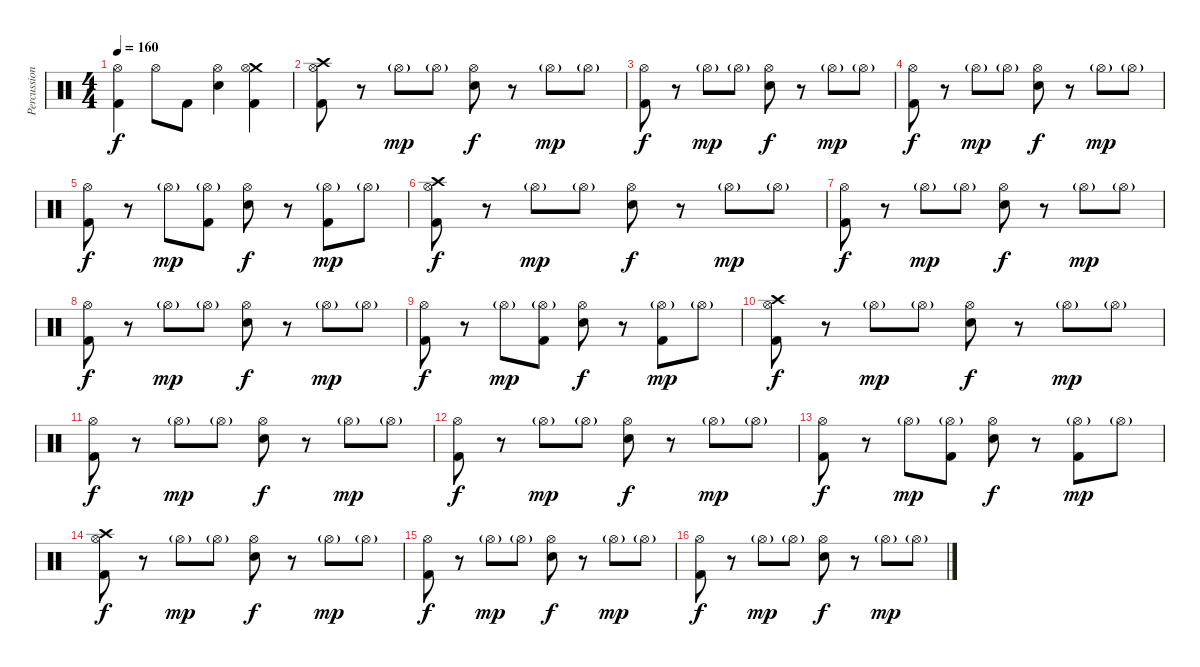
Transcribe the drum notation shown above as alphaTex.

\track ("Percussion" "Percussion") {instrument percussion}
\staff {score}
\articulation defaults
\ts (4 4)
\tempo 160
\clef neutral
\ks c
("Hi-Hat (open)" "Kick (hit) 2").4{dy f} "Hi-Hat (open)".8 "Kick (hit) 2".8 ("Hi-Hat (open)" "Electric Snare (hit)").4 ("Crash medium (hit)" "Hi-Hat (open)" "Kick (hit) 2").4 |
("Crash high (hit)" "Hi-Hat (open)" "Kick (hit) 2").8 r.8 "Hi-Hat (open)"{g}.8{dy mp} "Hi-Hat (open)"{g}.8 ("Hi-Hat (open)" "Electric Snare (hit)").8{dy f} r.8 "Hi-Hat (open)"{g}.8{dy mp} "Hi-Hat (open)"{g}.8 |
("Hi-Hat (open)" "Kick (hit) 2").8{dy f} r.8 "Hi-Hat (open)"{g}.8{dy mp} "Hi-Hat (open)"{g}.8 ("Hi-Hat (open)" "Electric Snare (hit)").8{dy f} r.8 "Hi-Hat (open)"{g}.8{dy mp} "Hi-Hat (open)"{g}.8 |
("Hi-Hat (open)" "Kick (hit) 2").8{dy f} r.8 "Hi-Hat (open)"{g}.8{dy mp} "Hi-Hat (open)"{g}.8 ("Hi-Hat (open)" "Electric Snare (hit)").8{dy f} r.8 "Hi-Hat (open)"{g}.8{dy mp} "Hi-Hat (open)"{g}.8 |
("Hi-Hat (open)" "Kick (hit) 2").8{dy f} r.8 "Hi-Hat (open)"{g}.8{dy mp} ("Hi-Hat (open)"{g} "Kick (hit) 2").8 ("Hi-Hat (open)" "Electric Snare (hit)").8{dy f} r.8 ("Hi-Hat (open)"{g} "Kick (hit) 2").8{dy mp} "Hi-Hat (open)"{g}.8 |
("Crash high (hit)" "Hi-Hat (open)" "Kick (hit) 2").8{dy f} r.8 "Hi-Hat (open)"{g}.8{dy mp} "Hi-Hat (open)"{g}.8 ("Hi-Hat (open)" "Electric Snare (hit)").8{dy f} r.8 "Hi-Hat (open)"{g}.8{dy mp} "Hi-Hat (open)"{g}.8 |
("Hi-Hat (open)" "Kick (hit) 2").8{dy f} r.8 "Hi-Hat (open)"{g}.8{dy mp} "Hi-Hat (open)"{g}.8 ("Hi-Hat (open)" "Electric Snare (hit)").8{dy f} r.8 "Hi-Hat (open)"{g}.8{dy mp} "Hi-Hat (open)"{g}.8 |
("Hi-Hat (open)" "Kick (hit) 2").8{dy f} r.8 "Hi-Hat (open)"{g}.8{dy mp} "Hi-Hat (open)"{g}.8 ("Hi-Hat (open)" "Electric Snare (hit)").8{dy f} r.8 "Hi-Hat (open)"{g}.8{dy mp} "Hi-Hat (open)"{g}.8 |
("Hi-Hat (open)" "Kick (hit) 2").8{dy f} r.8 "Hi-Hat (open)"{g}.8{dy mp} ("Hi-Hat (open)"{g} "Kick (hit) 2").8 ("Hi-Hat (open)" "Electric Snare (hit)").8{dy f} r.8 ("Hi-Hat (open)"{g} "Kick (hit) 2").8{dy mp} "Hi-Hat (open)"{g}.8 |
("Crash high (hit)" "Hi-Hat (open)" "Kick (hit) 2").8{dy f} r.8 "Hi-Hat (open)"{g}.8{dy mp} "Hi-Hat (open)"{g}.8 ("Hi-Hat (open)" "Electric Snare (hit)").8{dy f} r.8 "Hi-Hat (open)"{g}.8{dy mp} "Hi-Hat (open)"{g}.8 |
("Hi-Hat (open)" "Kick (hit) 2").8{dy f} r.8 "Hi-Hat (open)"{g}.8{dy mp} "Hi-Hat (open)"{g}.8 ("Hi-Hat (open)" "Electric Snare (hit)").8{dy f} r.8 "Hi-Hat (open)"{g}.8{dy mp} "Hi-Hat (open)"{g}.8 |
("Hi-Hat (open)" "Kick (hit) 2").8{dy f} r.8 "Hi-Hat (open)"{g}.8{dy mp} "Hi-Hat (open)"{g}.8 ("Hi-Hat (open)" "Electric Snare (hit)").8{dy f} r.8 "Hi-Hat (open)"{g}.8{dy mp} "Hi-Hat (open)"{g}.8 |
("Hi-Hat (open)" "Kick (hit) 2").8{dy f} r.8 "Hi-Hat (open)"{g}.8{dy mp} ("Hi-Hat (open)"{g} "Kick (hit) 2").8 ("Hi-Hat (open)" "Electric Snare (hit)").8{dy f} r.8 ("Hi-Hat (open)"{g} "Kick (hit) 2").8{dy mp} "Hi-Hat (open)"{g}.8 |
("Crash high (hit)" "Hi-Hat (open)" "Kick (hit) 2").8{dy f} r.8 "Hi-Hat (open)"{g}.8{dy mp} "Hi-Hat (open)"{g}.8 ("Hi-Hat (open)" "Electric Snare (hit)").8{dy f} r.8 "Hi-Hat (open)"{g}.8{dy mp} "Hi-Hat (open)"{g}.8 |
("Hi-Hat (open)" "Kick (hit) 2").8{dy f} r.8 "Hi-Hat (open)"{g}.8{dy mp} "Hi-Hat (open)"{g}.8 ("Hi-Hat (open)" "Electric Snare (hit)").8{dy f} r.8 "Hi-Hat (open)"{g}.8{dy mp} "Hi-Hat (open)"{g}.8 |
("Hi-Hat (open)" "Kick (hit) 2").8{dy f} r.8 "Hi-Hat (open)"{g}.8{dy mp} "Hi-Hat (open)"{g}.8 ("Hi-Hat (open)" "Electric Snare (hit)").8{dy f} r.8 "Hi-Hat (open)"{g}.8{dy mp} "Hi-Hat (open)"{g}.8
